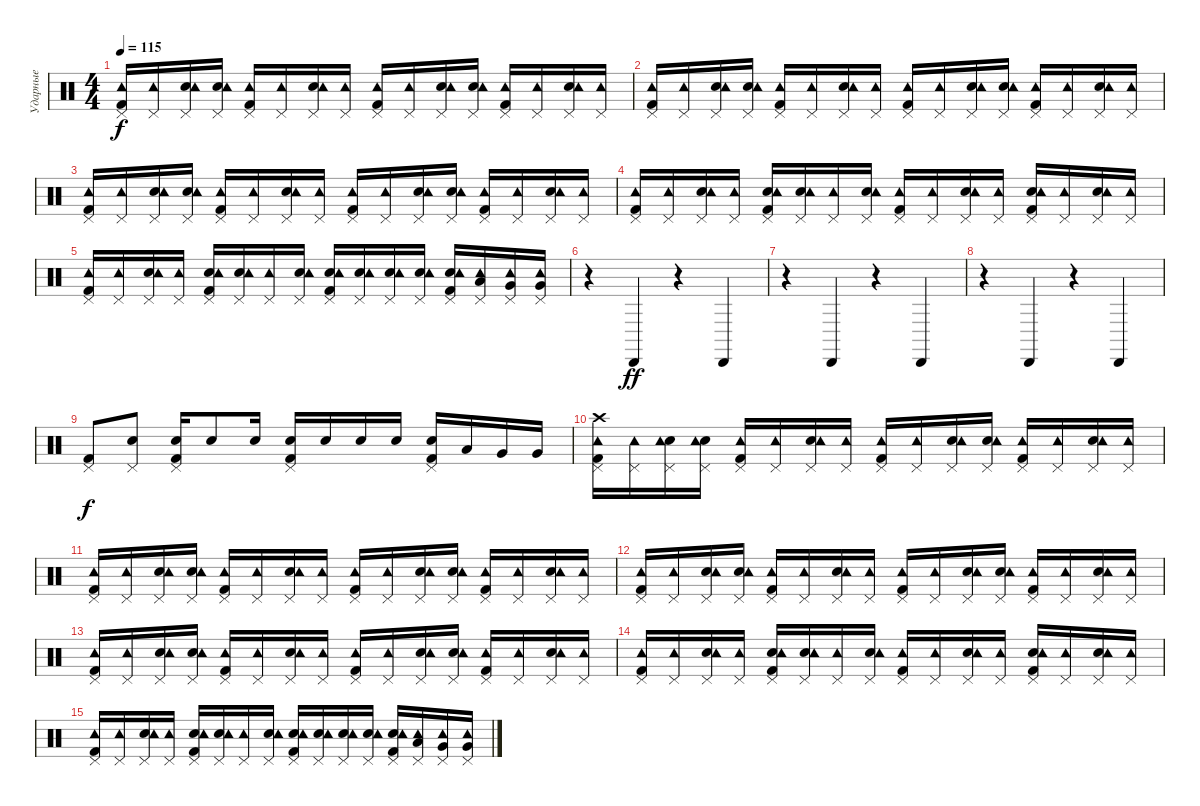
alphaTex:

\track ("Ударные" "Ударные") {instrument percussion}
\staff {score}
\articulation defaults
\ts (4 4)
\tempo 115
\clef neutral
\ks c
("Kick (hit) 2" "Pedal Hi-Hat (hit)" "Tambourine (hit)").16{dy f} ("Pedal Hi-Hat (hit)" "Tambourine (hit)").16 ("Pedal Hi-Hat (hit)" "Snare (hit) 2" "Tambourine (hit)").16 ("Pedal Hi-Hat (hit)" "Snare (hit) 2" "Tambourine (hit)").16 ("Kick (hit) 2" "Pedal Hi-Hat (hit)" "Tambourine (hit)").16 ("Pedal Hi-Hat (hit)" "Tambourine (hit)").16 ("Pedal Hi-Hat (hit)" "Snare (hit) 2" "Tambourine (hit)").16 ("Pedal Hi-Hat (hit)" "Tambourine (hit)").16 ("Kick (hit) 2" "Pedal Hi-Hat (hit)" "Tambourine (hit)").16 ("Pedal Hi-Hat (hit)" "Tambourine (hit)").16 ("Pedal Hi-Hat (hit)" "Snare (hit) 2" "Tambourine (hit)").16 ("Pedal Hi-Hat (hit)" "Snare (hit) 2" "Tambourine (hit)").16 ("Kick (hit) 2" "Pedal Hi-Hat (hit)" "Tambourine (hit)").16 ("Pedal Hi-Hat (hit)" "Tambourine (hit)").16 ("Pedal Hi-Hat (hit)" "Snare (hit) 2" "Tambourine (hit)").16 ("Pedal Hi-Hat (hit)" "Tambourine (hit)").16 |
("Kick (hit) 2" "Pedal Hi-Hat (hit)" "Tambourine (hit)").16 ("Pedal Hi-Hat (hit)" "Tambourine (hit)").16 ("Pedal Hi-Hat (hit)" "Snare (hit) 2" "Tambourine (hit)").16 ("Pedal Hi-Hat (hit)" "Snare (hit) 2" "Tambourine (hit)").16 ("Kick (hit) 2" "Pedal Hi-Hat (hit)" "Tambourine (hit)").16 ("Pedal Hi-Hat (hit)" "Tambourine (hit)").16 ("Pedal Hi-Hat (hit)" "Snare (hit) 2" "Tambourine (hit)").16 ("Pedal Hi-Hat (hit)" "Tambourine (hit)").16 ("Kick (hit) 2" "Pedal Hi-Hat (hit)" "Tambourine (hit)").16 ("Pedal Hi-Hat (hit)" "Tambourine (hit)").16 ("Pedal Hi-Hat (hit)" "Snare (hit) 2" "Tambourine (hit)").16 ("Pedal Hi-Hat (hit)" "Snare (hit) 2" "Tambourine (hit)").16 ("Kick (hit) 2" "Pedal Hi-Hat (hit)" "Tambourine (hit)").16 ("Pedal Hi-Hat (hit)" "Tambourine (hit)").16 ("Pedal Hi-Hat (hit)" "Snare (hit) 2" "Tambourine (hit)").16 ("Pedal Hi-Hat (hit)" "Tambourine (hit)").16 |
("Kick (hit) 2" "Pedal Hi-Hat (hit)" "Tambourine (hit)").16 ("Pedal Hi-Hat (hit)" "Tambourine (hit)").16 ("Pedal Hi-Hat (hit)" "Snare (hit) 2" "Tambourine (hit)").16 ("Pedal Hi-Hat (hit)" "Snare (hit) 2" "Tambourine (hit)").16 ("Kick (hit) 2" "Pedal Hi-Hat (hit)" "Tambourine (hit)").16 ("Pedal Hi-Hat (hit)" "Tambourine (hit)").16 ("Pedal Hi-Hat (hit)" "Snare (hit) 2" "Tambourine (hit)").16 ("Pedal Hi-Hat (hit)" "Tambourine (hit)").16 ("Kick (hit) 2" "Pedal Hi-Hat (hit)" "Tambourine (hit)").16 ("Pedal Hi-Hat (hit)" "Tambourine (hit)").16 ("Pedal Hi-Hat (hit)" "Snare (hit) 2" "Tambourine (hit)").16 ("Pedal Hi-Hat (hit)" "Snare (hit) 2" "Tambourine (hit)").16 ("Kick (hit) 2" "Pedal Hi-Hat (hit)" "Tambourine (hit)").16 ("Pedal Hi-Hat (hit)" "Tambourine (hit)").16 ("Pedal Hi-Hat (hit)" "Snare (hit) 2" "Tambourine (hit)").16 ("Pedal Hi-Hat (hit)" "Tambourine (hit)").16 |
("Kick (hit) 2" "Pedal Hi-Hat (hit)" "Tambourine (hit)").16 ("Pedal Hi-Hat (hit)" "Tambourine (hit)").16 ("Pedal Hi-Hat (hit)" "Snare (hit) 2" "Tambourine (hit)").16 ("Pedal Hi-Hat (hit)" "Tambourine (hit)").16 ("Kick (hit) 2" "Pedal Hi-Hat (hit)" "Snare (hit) 2" "Tambourine (hit)").16 ("Pedal Hi-Hat (hit)" "Snare (hit) 2" "Tambourine (hit)").16 ("Pedal Hi-Hat (hit)" "Tambourine (hit)").16 ("Pedal Hi-Hat (hit)" "Snare (hit) 2" "Tambourine (hit)").16 ("Kick (hit) 2" "Pedal Hi-Hat (hit)" "Tambourine (hit)").16 ("Pedal Hi-Hat (hit)" "Tambourine (hit)").16 ("Pedal Hi-Hat (hit)" "Snare (hit) 2" "Tambourine (hit)").16 ("Pedal Hi-Hat (hit)" "Tambourine (hit)").16 ("Kick (hit) 2" "Pedal Hi-Hat (hit)" "Snare (hit) 2" "Tambourine (hit)").16 ("Pedal Hi-Hat (hit)" "Tambourine (hit)").16 ("Pedal Hi-Hat (hit)" "Snare (hit) 2" "Tambourine (hit)").16 ("Pedal Hi-Hat (hit)" "Tambourine (hit)").16 |
("Kick (hit) 2" "Pedal Hi-Hat (hit)" "Tambourine (hit)").16 ("Pedal Hi-Hat (hit)" "Tambourine (hit)").16 ("Pedal Hi-Hat (hit)" "Snare (hit) 2" "Tambourine (hit)").16 ("Pedal Hi-Hat (hit)" "Tambourine (hit)").16 ("Kick (hit) 2" "Pedal Hi-Hat (hit)" "Snare (hit) 2" "Tambourine (hit)").16 ("Pedal Hi-Hat (hit)" "Snare (hit) 2" "Tambourine (hit)").16 ("Pedal Hi-Hat (hit)" "Tambourine (hit)").16 ("Pedal Hi-Hat (hit)" "Snare (hit) 2" "Tambourine (hit)").16 ("Kick (hit) 2" "Pedal Hi-Hat (hit)" "Snare (hit) 2" "Tambourine (hit)").16 ("Pedal Hi-Hat (hit)" "Snare (hit) 2" "Tambourine (hit)").16 ("Pedal Hi-Hat (hit)" "Snare (hit) 2" "Tambourine (hit)").16 ("Pedal Hi-Hat (hit)" "Snare (hit) 2" "Tambourine (hit)").16 ("Kick (hit) 2" "Pedal Hi-Hat (hit)" "Snare (hit) 2" "Tambourine (hit)").16 ("Pedal Hi-Hat (hit)" "Low Tom (hit)" "Tambourine (hit)").16 ("Pedal Hi-Hat (hit)" "Very Low Tom (hit)" "Tambourine (hit)").16 ("Pedal Hi-Hat (hit)" "Very Low Tom (hit)" "Tambourine (hit)").16 |
r.4 "Cabasa (hit)".4{dy ff} r.4 "Cabasa (hit)".4 |
r.4 "Cabasa (hit)".4 r.4 "Cabasa (hit)".4 |
r.4 "Cabasa (hit)".4 r.4 "Cabasa (hit)".4 |
("Kick (hit) 2" "Pedal Hi-Hat (hit)").8{dy f} ("Pedal Hi-Hat (hit)" "Snare (hit) 2").8 ("Kick (hit) 2" "Pedal Hi-Hat (hit)" "Snare (hit) 2").16 "Snare (hit) 2".8 "Snare (hit) 2".16 ("Kick (hit) 2" "Pedal Hi-Hat (hit)" "Snare (hit) 2").16 "Snare (hit) 2".16 "Snare (hit) 2".16 "Snare (hit) 2".16 ("Kick (hit) 2" "Pedal Hi-Hat (hit)" "Snare (hit) 2").16 "Low Tom (hit)".16 "Very Low Tom (hit)".16 "Very Low Tom (hit)".16 |
("Kick (hit) 2" "Pedal Hi-Hat (hit)" "Tambourine (hit)" "Crash high (hit)").16 ("Pedal Hi-Hat (hit)" "Tambourine (hit)").16 ("Pedal Hi-Hat (hit)" "Snare (hit) 2" "Tambourine (hit)").16 ("Pedal Hi-Hat (hit)" "Snare (hit) 2" "Tambourine (hit)").16 ("Kick (hit) 2" "Pedal Hi-Hat (hit)" "Tambourine (hit)").16 ("Pedal Hi-Hat (hit)" "Tambourine (hit)").16 ("Pedal Hi-Hat (hit)" "Snare (hit) 2" "Tambourine (hit)").16 ("Pedal Hi-Hat (hit)" "Tambourine (hit)").16 ("Kick (hit) 2" "Pedal Hi-Hat (hit)" "Tambourine (hit)").16 ("Pedal Hi-Hat (hit)" "Tambourine (hit)").16 ("Pedal Hi-Hat (hit)" "Snare (hit) 2" "Tambourine (hit)").16 ("Pedal Hi-Hat (hit)" "Snare (hit) 2" "Tambourine (hit)").16 ("Kick (hit) 2" "Pedal Hi-Hat (hit)" "Tambourine (hit)").16 ("Pedal Hi-Hat (hit)" "Tambourine (hit)").16 ("Pedal Hi-Hat (hit)" "Snare (hit) 2" "Tambourine (hit)").16 ("Pedal Hi-Hat (hit)" "Tambourine (hit)").16 |
("Kick (hit) 2" "Pedal Hi-Hat (hit)" "Tambourine (hit)").16 ("Pedal Hi-Hat (hit)" "Tambourine (hit)").16 ("Pedal Hi-Hat (hit)" "Snare (hit) 2" "Tambourine (hit)").16 ("Pedal Hi-Hat (hit)" "Snare (hit) 2" "Tambourine (hit)").16 ("Kick (hit) 2" "Pedal Hi-Hat (hit)" "Tambourine (hit)").16 ("Pedal Hi-Hat (hit)" "Tambourine (hit)").16 ("Pedal Hi-Hat (hit)" "Snare (hit) 2" "Tambourine (hit)").16 ("Pedal Hi-Hat (hit)" "Tambourine (hit)").16 ("Kick (hit) 2" "Pedal Hi-Hat (hit)" "Tambourine (hit)").16 ("Pedal Hi-Hat (hit)" "Tambourine (hit)").16 ("Pedal Hi-Hat (hit)" "Snare (hit) 2" "Tambourine (hit)").16 ("Pedal Hi-Hat (hit)" "Snare (hit) 2" "Tambourine (hit)").16 ("Kick (hit) 2" "Pedal Hi-Hat (hit)" "Tambourine (hit)").16 ("Pedal Hi-Hat (hit)" "Tambourine (hit)").16 ("Pedal Hi-Hat (hit)" "Snare (hit) 2" "Tambourine (hit)").16 ("Pedal Hi-Hat (hit)" "Tambourine (hit)").16 |
("Kick (hit) 2" "Pedal Hi-Hat (hit)" "Tambourine (hit)").16 ("Pedal Hi-Hat (hit)" "Tambourine (hit)").16 ("Pedal Hi-Hat (hit)" "Snare (hit) 2" "Tambourine (hit)").16 ("Pedal Hi-Hat (hit)" "Snare (hit) 2" "Tambourine (hit)").16 ("Kick (hit) 2" "Pedal Hi-Hat (hit)" "Tambourine (hit)").16 ("Pedal Hi-Hat (hit)" "Tambourine (hit)").16 ("Pedal Hi-Hat (hit)" "Snare (hit) 2" "Tambourine (hit)").16 ("Pedal Hi-Hat (hit)" "Tambourine (hit)").16 ("Kick (hit) 2" "Pedal Hi-Hat (hit)" "Tambourine (hit)").16 ("Pedal Hi-Hat (hit)" "Tambourine (hit)").16 ("Pedal Hi-Hat (hit)" "Snare (hit) 2" "Tambourine (hit)").16 ("Pedal Hi-Hat (hit)" "Snare (hit) 2" "Tambourine (hit)").16 ("Kick (hit) 2" "Pedal Hi-Hat (hit)" "Tambourine (hit)").16 ("Pedal Hi-Hat (hit)" "Tambourine (hit)").16 ("Pedal Hi-Hat (hit)" "Snare (hit) 2" "Tambourine (hit)").16 ("Pedal Hi-Hat (hit)" "Tambourine (hit)").16 |
("Kick (hit) 2" "Pedal Hi-Hat (hit)" "Tambourine (hit)").16 ("Pedal Hi-Hat (hit)" "Tambourine (hit)").16 ("Pedal Hi-Hat (hit)" "Snare (hit) 2" "Tambourine (hit)").16 ("Pedal Hi-Hat (hit)" "Snare (hit) 2" "Tambourine (hit)").16 ("Kick (hit) 2" "Pedal Hi-Hat (hit)" "Tambourine (hit)").16 ("Pedal Hi-Hat (hit)" "Tambourine (hit)").16 ("Pedal Hi-Hat (hit)" "Snare (hit) 2" "Tambourine (hit)").16 ("Pedal Hi-Hat (hit)" "Tambourine (hit)").16 ("Kick (hit) 2" "Pedal Hi-Hat (hit)" "Tambourine (hit)").16 ("Pedal Hi-Hat (hit)" "Tambourine (hit)").16 ("Pedal Hi-Hat (hit)" "Snare (hit) 2" "Tambourine (hit)").16 ("Pedal Hi-Hat (hit)" "Snare (hit) 2" "Tambourine (hit)").16 ("Kick (hit) 2" "Pedal Hi-Hat (hit)" "Tambourine (hit)").16 ("Pedal Hi-Hat (hit)" "Tambourine (hit)").16 ("Pedal Hi-Hat (hit)" "Snare (hit) 2" "Tambourine (hit)").16 ("Pedal Hi-Hat (hit)" "Tambourine (hit)").16 |
("Kick (hit) 2" "Pedal Hi-Hat (hit)" "Tambourine (hit)").16 ("Pedal Hi-Hat (hit)" "Tambourine (hit)").16 ("Pedal Hi-Hat (hit)" "Snare (hit) 2" "Tambourine (hit)").16 ("Pedal Hi-Hat (hit)" "Tambourine (hit)").16 ("Kick (hit) 2" "Pedal Hi-Hat (hit)" "Snare (hit) 2" "Tambourine (hit)").16 ("Pedal Hi-Hat (hit)" "Snare (hit) 2" "Tambourine (hit)").16 ("Pedal Hi-Hat (hit)" "Tambourine (hit)").16 ("Pedal Hi-Hat (hit)" "Snare (hit) 2" "Tambourine (hit)").16 ("Kick (hit) 2" "Pedal Hi-Hat (hit)" "Tambourine (hit)").16 ("Pedal Hi-Hat (hit)" "Tambourine (hit)").16 ("Pedal Hi-Hat (hit)" "Snare (hit) 2" "Tambourine (hit)").16 ("Pedal Hi-Hat (hit)" "Tambourine (hit)").16 ("Kick (hit) 2" "Pedal Hi-Hat (hit)" "Snare (hit) 2" "Tambourine (hit)").16 ("Pedal Hi-Hat (hit)" "Tambourine (hit)").16 ("Pedal Hi-Hat (hit)" "Snare (hit) 2" "Tambourine (hit)").16 ("Pedal Hi-Hat (hit)" "Tambourine (hit)").16 |
("Kick (hit) 2" "Pedal Hi-Hat (hit)" "Tambourine (hit)").16 ("Pedal Hi-Hat (hit)" "Tambourine (hit)").16 ("Pedal Hi-Hat (hit)" "Snare (hit) 2" "Tambourine (hit)").16 ("Pedal Hi-Hat (hit)" "Tambourine (hit)").16 ("Kick (hit) 2" "Pedal Hi-Hat (hit)" "Snare (hit) 2" "Tambourine (hit)").16 ("Pedal Hi-Hat (hit)" "Snare (hit) 2" "Tambourine (hit)").16 ("Pedal Hi-Hat (hit)" "Tambourine (hit)").16 ("Pedal Hi-Hat (hit)" "Snare (hit) 2" "Tambourine (hit)").16 ("Kick (hit) 2" "Pedal Hi-Hat (hit)" "Snare (hit) 2" "Tambourine (hit)").16 ("Pedal Hi-Hat (hit)" "Snare (hit) 2" "Tambourine (hit)").16 ("Pedal Hi-Hat (hit)" "Snare (hit) 2" "Tambourine (hit)").16 ("Pedal Hi-Hat (hit)" "Snare (hit) 2" "Tambourine (hit)").16 ("Kick (hit) 2" "Pedal Hi-Hat (hit)" "Snare (hit) 2" "Tambourine (hit)").16 ("Pedal Hi-Hat (hit)" "Low Tom (hit)" "Tambourine (hit)").16 ("Pedal Hi-Hat (hit)" "Very Low Tom (hit)" "Tambourine (hit)").16 ("Pedal Hi-Hat (hit)" "Very Low Tom (hit)" "Tambourine (hit)").16
